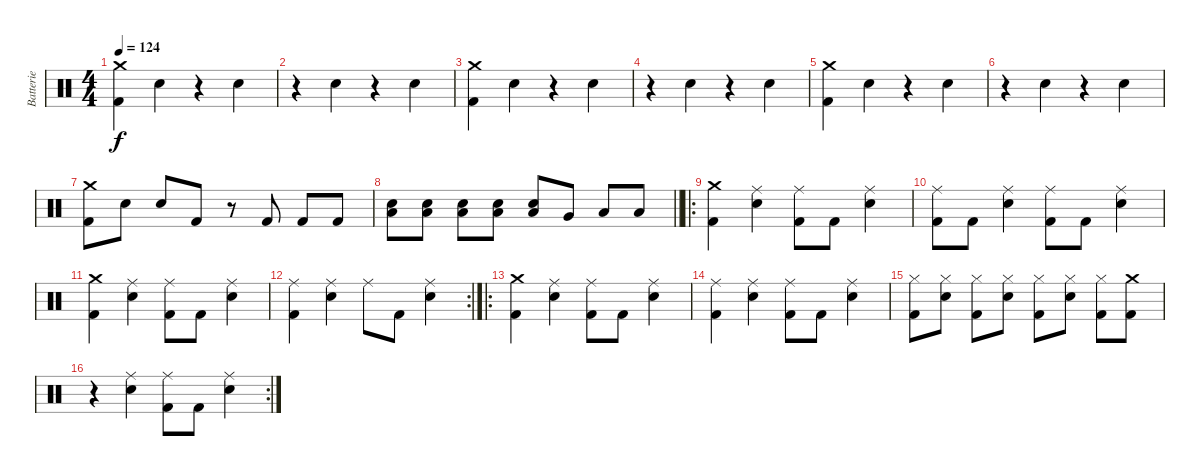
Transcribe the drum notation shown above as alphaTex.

\track ("Batterie" "Batterie") {instrument percussion}
\staff {score}
\articulation defaults
\ts (4 4)
\tempo 124
\clef neutral
\ks c
("Crash medium (hit)" "Kick (hit) 2").4{dy f} "Snare (hit) 2".4 r.4 "Snare (hit) 2".4 |
r.4 "Snare (hit) 2".4 r.4 "Snare (hit) 2".4 |
("Crash medium (hit)" "Kick (hit) 2").4 "Snare (hit) 2".4 r.4 "Snare (hit) 2".4 |
r.4 "Snare (hit) 2".4 r.4 "Snare (hit) 2".4 |
("Crash medium (hit)" "Kick (hit) 2").4 "Snare (hit) 2".4 r.4 "Snare (hit) 2".4 |
r.4 "Snare (hit) 2".4 r.4 "Snare (hit) 2".4 |
("Crash medium (hit)" "Kick (hit) 2").8 "Snare (hit) 2".8 "Snare (hit) 2".8 "Kick (hit) 2".8 r.8 "Kick (hit) 2".8 "Kick (hit) 2".8 "Kick (hit) 2".8 |
\barLineRight lightlight
("Snare (hit) 2" "Low Tom (hit)").8 ("Snare (hit) 2" "Low Tom (hit)").8 ("Snare (hit) 2" "Low Tom (hit)").8 ("Snare (hit) 2" "Low Tom (hit)").8 ("Snare (hit) 2" "Low Tom (hit)").8 "Very Low Tom (hit)".8 "Low Floor Tom (hit)".8 "Low Floor Tom (hit)".8 |
\ro
("Crash medium (hit)" "Kick (hit) 2").4 ("Ride (middle)" "Snare (hit) 2").4 ("Ride (middle)" "Kick (hit) 2").8 "Kick (hit) 2".8 ("Ride (middle)" "Snare (hit) 2").4 |
("Ride (middle)" "Kick (hit) 2").8 "Kick (hit) 2".8 ("Ride (middle)" "Snare (hit) 2").4 ("Ride (middle)" "Kick (hit) 2").8 "Kick (hit) 2".8 ("Ride (middle)" "Snare (hit) 2").4 |
("Crash medium (hit)" "Kick (hit) 2").4 ("Ride (middle)" "Snare (hit) 2").4 ("Ride (middle)" "Kick (hit) 2").8 "Kick (hit) 2".8 ("Ride (middle)" "Snare (hit) 2").4 |
\rc 2
("Ride (middle)" "Kick (hit) 2").4 ("Ride (middle)" "Snare (hit) 2").4 "Ride (middle)".8 "Kick (hit) 2".8 ("Ride (middle)" "Snare (hit) 2").4 |
\ro
("Crash medium (hit)" "Kick (hit) 2").4 ("Ride (middle)" "Snare (hit) 2").4 ("Ride (middle)" "Kick (hit) 2").8 "Kick (hit) 2".8 ("Ride (middle)" "Snare (hit) 2").4 |
("Ride (middle)" "Kick (hit) 2").4 ("Ride (middle)" "Snare (hit) 2").4 ("Ride (middle)" "Kick (hit) 2").8 "Kick (hit) 2".8 ("Ride (middle)" "Snare (hit) 2").4 |
("Hi-Hat (closed)" "Kick (hit) 2").8 ("Hi-Hat (closed)" "Snare (hit) 2").8 ("Hi-Hat (closed)" "Kick (hit) 2").8 ("Hi-Hat (closed)" "Snare (hit) 2").8 ("Hi-Hat (closed)" "Kick (hit) 2").8 ("Hi-Hat (closed)" "Snare (hit) 2").8 ("Hi-Hat (closed)" "Kick (hit) 2").8 ("Crash medium (hit)" "Kick (hit) 2").8 |
\rc 2
r.4 ("Ride (middle)" "Snare (hit) 2").4 ("Ride (middle)" "Kick (hit) 2").8 "Kick (hit) 2".8 ("Ride (middle)" "Snare (hit) 2").4
